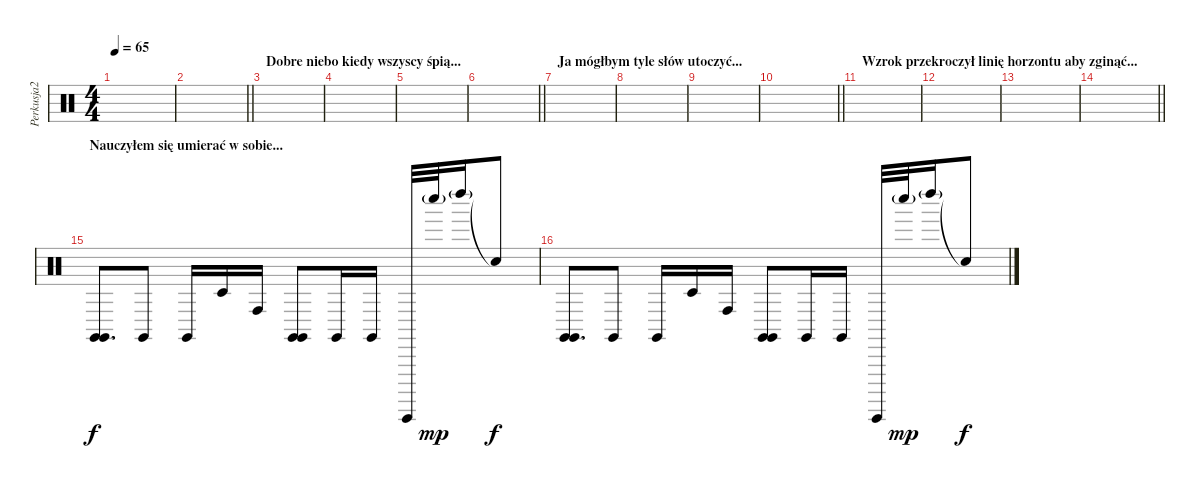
\track ("Perkusja2" "Perkusja2") {instrument percussion}
\staff {score}
\articulation defaults
\ts (4 4)
\tempo 65
\clef neutral
\ks c
|
\barLineRight lightlight
|
\section ("" "Dobre niebo kiedy wszyscy śpią...")
|
|
|
\barLineRight lightlight
|
\section ("" "Ja mógłbym tyle słów utoczyć...")
|
|
|
\barLineRight lightlight
|
\section ("" "Wzrok przekroczył linię horzontu aby zginąć...")
|
|
|
\barLineRight lightlight
|
\section ("" "Nauczyłem się umierać w sobie...")
("Claves (hit)" "Claves (hit)").8{d} "Claves (hit)".8 "Claves (hit)".16 "Timbale low (hit)".16 "Conga high (hit)".16 ("Claves (hit)" "Claves (hit)").8 "Claves (hit)".16 "Claves (hit)".16 "Guiro (hit)".32 "Whistle low (hit)"{g}.32{dy mp} "Left Maraca (hit)"{g}.16 "Snare (hit)"{t}.8{dy f} |
("Claves (hit)" "Claves (hit)").8{d} "Claves (hit)".8 "Claves (hit)".16 "Timbale low (hit)".16 "Conga high (hit)".16 ("Claves (hit)" "Claves (hit)").8 "Claves (hit)".16 "Claves (hit)".16 "Guiro (hit)".32 "Whistle low (hit)"{g}.32{dy mp} "Left Maraca (hit)"{g}.16 "Snare (hit)"{t}.8{dy f}
